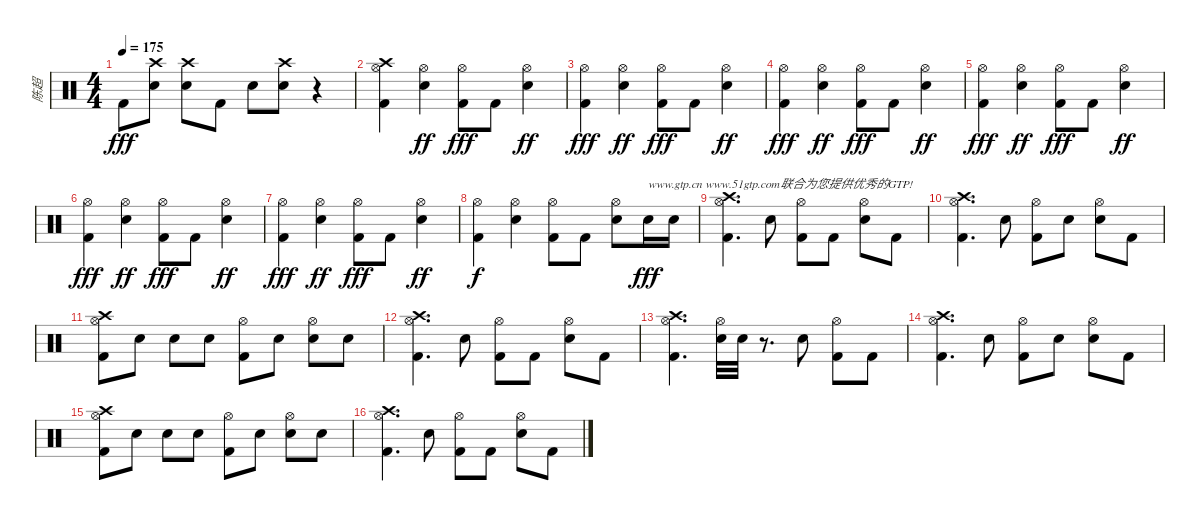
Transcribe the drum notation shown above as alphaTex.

\track ("陈超" "陈超") {instrument percussion}
\staff {score}
\articulation defaults
\ts (4 4)
\tempo 175
\clef neutral
\ks c "Kick (hit) 2".8{dy fff}
("Crash high (hit)" "Electric Snare (hit)").8 ("Crash high (hit)" "Electric Snare (hit)").8 "Kick (hit) 2".8 "Electric Snare (hit)".8 ("Crash high (hit)" "Electric Snare (hit)").8 r.4 |
("Crash high (hit)" "Hi-Hat (open)" "Kick (hit) 2").4 ("Hi-Hat (open)" "Electric Snare (hit)").4{dy ff} ("Hi-Hat (open)" "Kick (hit) 2").8{dy fff} "Kick (hit) 2".8 ("Hi-Hat (open)" "Electric Snare (hit)").4{dy ff} |
("Hi-Hat (open)" "Kick (hit) 2").4{dy fff} ("Hi-Hat (open)" "Electric Snare (hit)").4{dy ff} ("Hi-Hat (open)" "Kick (hit) 2").8{dy fff} "Kick (hit) 2".8 ("Hi-Hat (open)" "Electric Snare (hit)").4{dy ff} |
("Hi-Hat (open)" "Kick (hit) 2").4{dy fff} ("Hi-Hat (open)" "Electric Snare (hit)").4{dy ff} ("Hi-Hat (open)" "Kick (hit) 2").8{dy fff} "Kick (hit) 2".8 ("Hi-Hat (open)" "Electric Snare (hit)").4{dy ff} |
("Hi-Hat (open)" "Kick (hit) 2").4{dy fff} ("Hi-Hat (open)" "Electric Snare (hit)").4{dy ff} ("Hi-Hat (open)" "Kick (hit) 2").8{dy fff} "Kick (hit) 2".8 ("Hi-Hat (open)" "Electric Snare (hit)").4{dy ff} |
("Hi-Hat (open)" "Kick (hit) 2").4{dy fff} ("Hi-Hat (open)" "Electric Snare (hit)").4{dy ff} ("Hi-Hat (open)" "Kick (hit) 2").8{dy fff} "Kick (hit) 2".8 ("Hi-Hat (open)" "Electric Snare (hit)").4{dy ff} |
("Hi-Hat (open)" "Kick (hit) 2").4{dy fff} ("Hi-Hat (open)" "Electric Snare (hit)").4{dy ff} ("Hi-Hat (open)" "Kick (hit) 2").8{dy fff} "Kick (hit) 2".8 ("Hi-Hat (open)" "Electric Snare (hit)").4{dy ff} |
("Hi-Hat (open)" "Kick (hit) 2").4{dy f} ("Hi-Hat (open)" "Electric Snare (hit)").4 ("Hi-Hat (open)" "Kick (hit) 2").8 "Kick (hit) 2".8 ("Hi-Hat (open)" "Electric Snare (hit)").8 "Electric Snare (hit)".16{txt "www.gtp.cn www.51gtp.com联合为您提供优秀的GTP!" dy fff} "Electric Snare (hit)".16 |
("Crash high (hit)" "Hi-Hat (open)" "Kick (hit) 2").4{d} "Electric Snare (hit)".8 ("Hi-Hat (open)" "Kick (hit) 2").8 "Kick (hit) 2".8 ("Hi-Hat (open)" "Electric Snare (hit)").8 "Kick (hit) 2".8 |
("Crash high (hit)" "Hi-Hat (open)" "Kick (hit) 2").4{d} "Electric Snare (hit)".8 ("Hi-Hat (open)" "Kick (hit) 2").8 "Electric Snare (hit)".8 ("Hi-Hat (open)" "Electric Snare (hit)").8 "Kick (hit) 2".8 |
("Crash high (hit)" "Hi-Hat (open)" "Kick (hit) 2").8 "Electric Snare (hit)".8 "Electric Snare (hit)".8 "Electric Snare (hit)".8 ("Hi-Hat (open)" "Kick (hit) 2").8 "Electric Snare (hit)".8 ("Hi-Hat (open)" "Snare (hit) 2").8 "Snare (hit) 2".8 |
("Crash high (hit)" "Hi-Hat (open)" "Kick (hit) 2").4{d} "Electric Snare (hit)".8 ("Hi-Hat (open)" "Kick (hit) 2").8 "Kick (hit) 2".8 ("Hi-Hat (open)" "Electric Snare (hit)").8 "Kick (hit) 2".8 |
("Crash high (hit)" "Hi-Hat (open)" "Kick (hit) 2").4{d} ("Hi-Hat (open)" "Electric Snare (hit)").32 "Electric Snare (hit)".32 r.8{d} "Electric Snare (hit)".8 ("Hi-Hat (open)" "Kick (hit) 2").8 "Kick (hit) 2".8 |
("Crash high (hit)" "Hi-Hat (open)" "Kick (hit) 2").4{d} "Electric Snare (hit)".8 ("Hi-Hat (open)" "Kick (hit) 2").8 "Electric Snare (hit)".8 ("Hi-Hat (open)" "Electric Snare (hit)").8 "Kick (hit) 2".8 |
("Crash high (hit)" "Hi-Hat (open)" "Kick (hit) 2").8 "Electric Snare (hit)".8 "Electric Snare (hit)".8 "Electric Snare (hit)".8 ("Hi-Hat (open)" "Kick (hit) 2").8 "Electric Snare (hit)".8 ("Hi-Hat (open)" "Snare (hit) 2").8 "Snare (hit) 2".8 |
("Crash high (hit)" "Hi-Hat (open)" "Kick (hit) 2").4{d} "Electric Snare (hit)".8 ("Hi-Hat (open)" "Kick (hit) 2").8 "Kick (hit) 2".8 ("Hi-Hat (open)" "Electric Snare (hit)").8 "Kick (hit) 2".8
